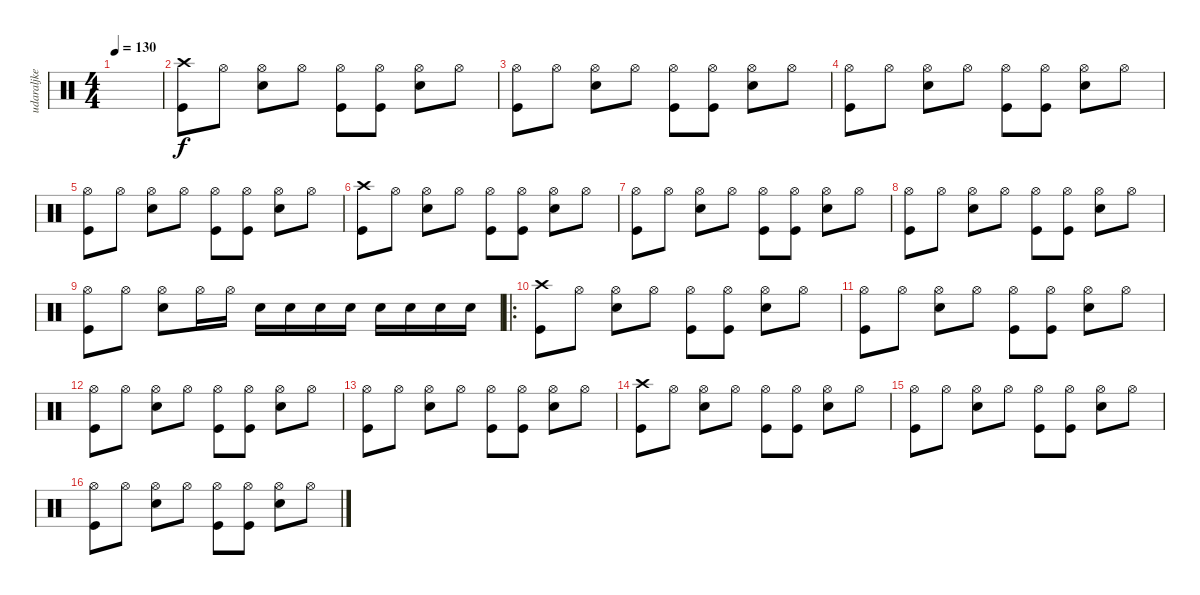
\track ("udaraljke" "udaraljke") {instrument percussion}
\staff {score}
\articulation defaults
\ts (4 4)
\tempo 130
\clef neutral
\ks c
|
("Crash high (hit)" "Kick (hit)").8 "Hi-Hat (open)".8 ("Hi-Hat (open)" "Electric Snare (hit)").8 "Hi-Hat (open)".8 ("Hi-Hat (open)" "Kick (hit)").8 ("Hi-Hat (open)" "Kick (hit)").8 ("Hi-Hat (open)" "Electric Snare (hit)").8 "Hi-Hat (open)".8 |
("Hi-Hat (open)" "Kick (hit)").8 "Hi-Hat (open)".8 ("Hi-Hat (open)" "Electric Snare (hit)").8 "Hi-Hat (open)".8 ("Hi-Hat (open)" "Kick (hit)").8 ("Hi-Hat (open)" "Kick (hit)").8 ("Hi-Hat (open)" "Electric Snare (hit)").8 "Hi-Hat (open)".8 |
("Hi-Hat (open)" "Kick (hit)").8 "Hi-Hat (open)".8 ("Hi-Hat (open)" "Electric Snare (hit)").8 "Hi-Hat (open)".8 ("Hi-Hat (open)" "Kick (hit)").8 ("Hi-Hat (open)" "Kick (hit)").8 ("Hi-Hat (open)" "Electric Snare (hit)").8 "Hi-Hat (open)".8 |
("Hi-Hat (open)" "Kick (hit)").8 "Hi-Hat (open)".8 ("Hi-Hat (open)" "Electric Snare (hit)").8 "Hi-Hat (open)".8 ("Hi-Hat (open)" "Kick (hit)").8 ("Hi-Hat (open)" "Kick (hit)").8 ("Hi-Hat (open)" "Electric Snare (hit)").8 "Hi-Hat (open)".8 |
("Crash high (hit)" "Kick (hit)").8 "Hi-Hat (open)".8 ("Hi-Hat (open)" "Electric Snare (hit)").8 "Hi-Hat (open)".8 ("Hi-Hat (open)" "Kick (hit)").8 ("Hi-Hat (open)" "Kick (hit)").8 ("Hi-Hat (open)" "Electric Snare (hit)").8 "Hi-Hat (open)".8 |
("Hi-Hat (open)" "Kick (hit)").8 "Hi-Hat (open)".8 ("Hi-Hat (open)" "Electric Snare (hit)").8 "Hi-Hat (open)".8 ("Hi-Hat (open)" "Kick (hit)").8 ("Hi-Hat (open)" "Kick (hit)").8 ("Hi-Hat (open)" "Electric Snare (hit)").8 "Hi-Hat (open)".8 |
("Hi-Hat (open)" "Kick (hit)").8 "Hi-Hat (open)".8 ("Hi-Hat (open)" "Electric Snare (hit)").8 "Hi-Hat (open)".8 ("Hi-Hat (open)" "Kick (hit)").8 ("Hi-Hat (open)" "Kick (hit)").8 ("Hi-Hat (open)" "Electric Snare (hit)").8 "Hi-Hat (open)".8 |
("Hi-Hat (open)" "Kick (hit)").8 "Hi-Hat (open)".8 ("Hi-Hat (open)" "Electric Snare (hit)").8 "Hi-Hat (open)".16 "Hi-Hat (open)".16 "Electric Snare (hit)".16 "Electric Snare (hit)".16 "Electric Snare (hit)".16 "Electric Snare (hit)".16 "Electric Snare (hit)".16 "Electric Snare (hit)".16 "Electric Snare (hit)".16 "Electric Snare (hit)".16 |
\ro
("Crash high (hit)" "Kick (hit)").8 "Hi-Hat (open)".8 ("Hi-Hat (open)" "Electric Snare (hit)").8 "Hi-Hat (open)".8 ("Hi-Hat (open)" "Kick (hit)").8 ("Hi-Hat (open)" "Kick (hit)").8 ("Hi-Hat (open)" "Electric Snare (hit)").8 "Hi-Hat (open)".8 |
("Hi-Hat (open)" "Kick (hit)").8 "Hi-Hat (open)".8 ("Hi-Hat (open)" "Electric Snare (hit)").8 "Hi-Hat (open)".8 ("Hi-Hat (open)" "Kick (hit)").8 ("Hi-Hat (open)" "Kick (hit)").8 ("Hi-Hat (open)" "Electric Snare (hit)").8 "Hi-Hat (open)".8 |
("Hi-Hat (open)" "Kick (hit)").8 "Hi-Hat (open)".8 ("Hi-Hat (open)" "Electric Snare (hit)").8 "Hi-Hat (open)".8 ("Hi-Hat (open)" "Kick (hit)").8 ("Hi-Hat (open)" "Kick (hit)").8 ("Hi-Hat (open)" "Electric Snare (hit)").8 "Hi-Hat (open)".8 |
("Hi-Hat (open)" "Kick (hit)").8 "Hi-Hat (open)".8 ("Hi-Hat (open)" "Electric Snare (hit)").8 "Hi-Hat (open)".8 ("Hi-Hat (open)" "Kick (hit)").8 ("Hi-Hat (open)" "Kick (hit)").8 ("Hi-Hat (open)" "Electric Snare (hit)").8 "Hi-Hat (open)".8 |
("Crash high (hit)" "Kick (hit)").8 "Hi-Hat (open)".8 ("Hi-Hat (open)" "Electric Snare (hit)").8 "Hi-Hat (open)".8 ("Hi-Hat (open)" "Kick (hit)").8 ("Hi-Hat (open)" "Kick (hit)").8 ("Hi-Hat (open)" "Electric Snare (hit)").8 "Hi-Hat (open)".8 |
("Hi-Hat (open)" "Kick (hit)").8 "Hi-Hat (open)".8 ("Hi-Hat (open)" "Electric Snare (hit)").8 "Hi-Hat (open)".8 ("Hi-Hat (open)" "Kick (hit)").8 ("Hi-Hat (open)" "Kick (hit)").8 ("Hi-Hat (open)" "Electric Snare (hit)").8 "Hi-Hat (open)".8 |
("Hi-Hat (open)" "Kick (hit)").8 "Hi-Hat (open)".8 ("Hi-Hat (open)" "Electric Snare (hit)").8 "Hi-Hat (open)".8 ("Hi-Hat (open)" "Kick (hit)").8 ("Hi-Hat (open)" "Kick (hit)").8 ("Hi-Hat (open)" "Electric Snare (hit)").8 "Hi-Hat (open)".8
